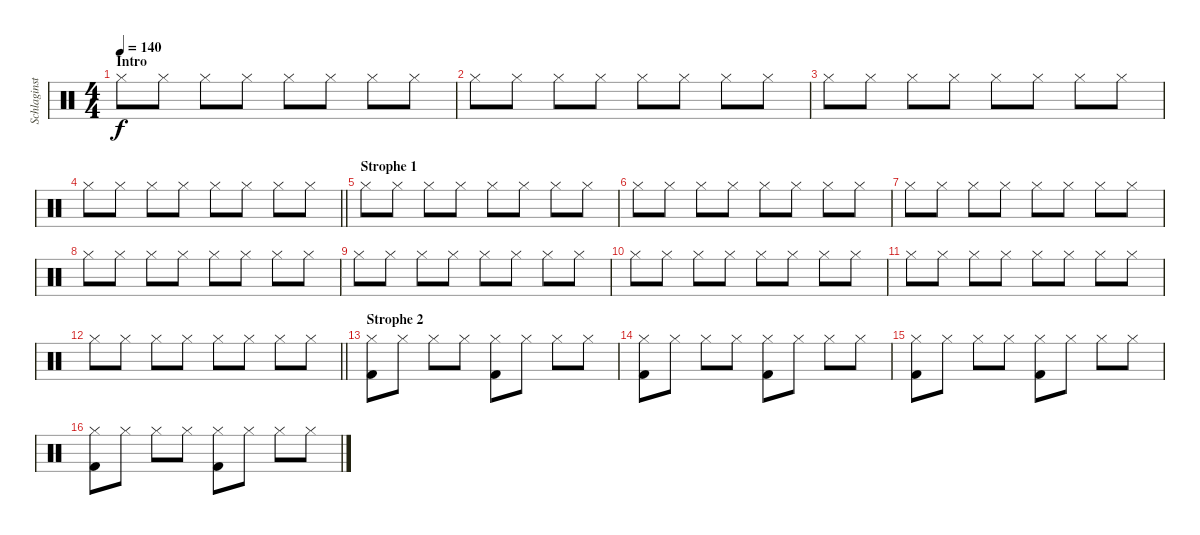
\track ("Schlaginstrumente - Auswahl" "Schlaginst") {instrument percussion}
\staff {score}
\articulation defaults
\ts (4 4)
\section ("" "Intro")
\tempo 140
\clef neutral
\ks c "Hi-Hat (closed)".8{dy f} "Hi-Hat (closed)".8 "Hi-Hat (closed)".8 "Hi-Hat (closed)".8 "Hi-Hat (closed)".8 "Hi-Hat (closed)".8 "Hi-Hat (closed)".8 "Hi-Hat (closed)".8
|
"Hi-Hat (closed)".8 "Hi-Hat (closed)".8 "Hi-Hat (closed)".8 "Hi-Hat (closed)".8 "Hi-Hat (closed)".8 "Hi-Hat (closed)".8 "Hi-Hat (closed)".8 "Hi-Hat (closed)".8 |
"Hi-Hat (closed)".8 "Hi-Hat (closed)".8 "Hi-Hat (closed)".8 "Hi-Hat (closed)".8 "Hi-Hat (closed)".8 "Hi-Hat (closed)".8 "Hi-Hat (closed)".8 "Hi-Hat (closed)".8 |
\barLineRight lightlight "Hi-Hat (closed)".8 "Hi-Hat (closed)".8 "Hi-Hat (closed)".8 "Hi-Hat (closed)".8 "Hi-Hat (closed)".8 "Hi-Hat (closed)".8 "Hi-Hat (closed)".8 "Hi-Hat (closed)".8
|
\section ("" "Strophe 1")
"Hi-Hat (closed)".8 "Hi-Hat (closed)".8 "Hi-Hat (closed)".8 "Hi-Hat (closed)".8 "Hi-Hat (closed)".8 "Hi-Hat (closed)".8 "Hi-Hat (closed)".8 "Hi-Hat (closed)".8 |
"Hi-Hat (closed)".8 "Hi-Hat (closed)".8 "Hi-Hat (closed)".8 "Hi-Hat (closed)".8 "Hi-Hat (closed)".8 "Hi-Hat (closed)".8 "Hi-Hat (closed)".8 "Hi-Hat (closed)".8 |
"Hi-Hat (closed)".8 "Hi-Hat (closed)".8 "Hi-Hat (closed)".8 "Hi-Hat (closed)".8 "Hi-Hat (closed)".8 "Hi-Hat (closed)".8 "Hi-Hat (closed)".8 "Hi-Hat (closed)".8 |
"Hi-Hat (closed)".8 "Hi-Hat (closed)".8 "Hi-Hat (closed)".8 "Hi-Hat (closed)".8 "Hi-Hat (closed)".8 "Hi-Hat (closed)".8 "Hi-Hat (closed)".8 "Hi-Hat (closed)".8 |
"Hi-Hat (closed)".8 "Hi-Hat (closed)".8 "Hi-Hat (closed)".8 "Hi-Hat (closed)".8 "Hi-Hat (closed)".8 "Hi-Hat (closed)".8 "Hi-Hat (closed)".8 "Hi-Hat (closed)".8 |
"Hi-Hat (closed)".8 "Hi-Hat (closed)".8 "Hi-Hat (closed)".8 "Hi-Hat (closed)".8 "Hi-Hat (closed)".8 "Hi-Hat (closed)".8 "Hi-Hat (closed)".8 "Hi-Hat (closed)".8 |
"Hi-Hat (closed)".8 "Hi-Hat (closed)".8 "Hi-Hat (closed)".8 "Hi-Hat (closed)".8 "Hi-Hat (closed)".8 "Hi-Hat (closed)".8 "Hi-Hat (closed)".8 "Hi-Hat (closed)".8 |
\barLineRight lightlight "Hi-Hat (closed)".8 "Hi-Hat (closed)".8 "Hi-Hat (closed)".8 "Hi-Hat (closed)".8 "Hi-Hat (closed)".8 "Hi-Hat (closed)".8 "Hi-Hat (closed)".8 "Hi-Hat (closed)".8
|
\section ("" "Strophe 2")
("Hi-Hat (closed)" "Kick (hit) 2").8 "Hi-Hat (closed)".8 "Hi-Hat (closed)".8 "Hi-Hat (closed)".8 ("Hi-Hat (closed)" "Kick (hit) 2").8 "Hi-Hat (closed)".8 "Hi-Hat (closed)".8 "Hi-Hat (closed)".8 |
("Hi-Hat (closed)" "Kick (hit) 2").8 "Hi-Hat (closed)".8 "Hi-Hat (closed)".8 "Hi-Hat (closed)".8 ("Hi-Hat (closed)" "Kick (hit) 2").8 "Hi-Hat (closed)".8 "Hi-Hat (closed)".8 "Hi-Hat (closed)".8 |
("Hi-Hat (closed)" "Kick (hit) 2").8 "Hi-Hat (closed)".8 "Hi-Hat (closed)".8 "Hi-Hat (closed)".8 ("Hi-Hat (closed)" "Kick (hit) 2").8 "Hi-Hat (closed)".8 "Hi-Hat (closed)".8 "Hi-Hat (closed)".8 |
("Hi-Hat (closed)" "Kick (hit) 2").8 "Hi-Hat (closed)".8 "Hi-Hat (closed)".8 "Hi-Hat (closed)".8 ("Hi-Hat (closed)" "Kick (hit) 2").8 "Hi-Hat (closed)".8 "Hi-Hat (closed)".8 "Hi-Hat (closed)".8
